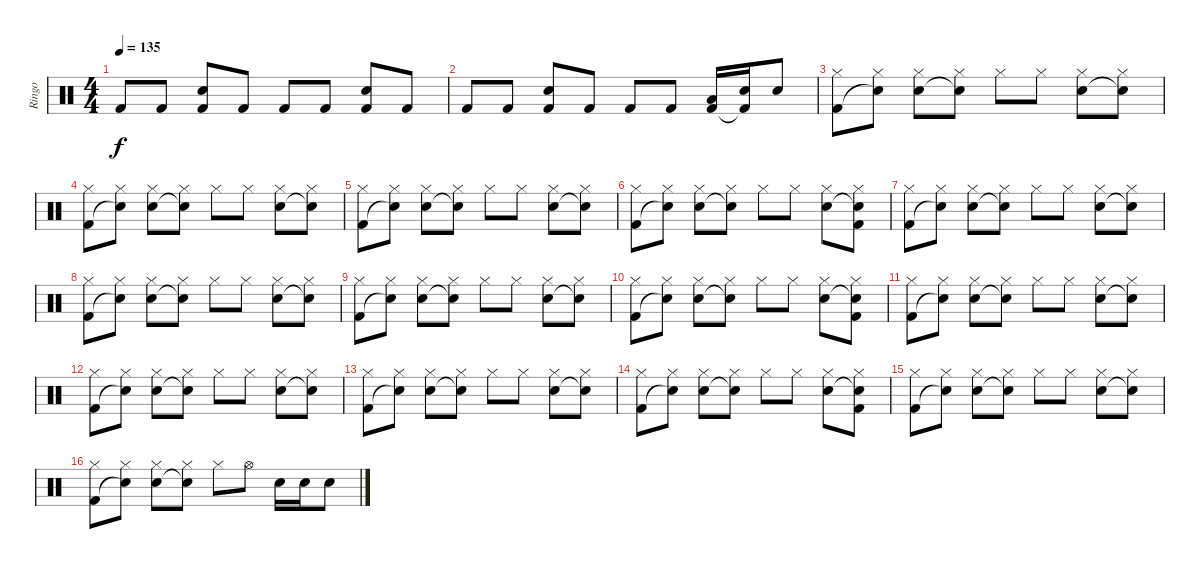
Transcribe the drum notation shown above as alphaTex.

\track ("Ringo" "Ringo") {instrument percussion}
\staff {score}
\articulation defaults
\ts (4 4)
\tempo 135
\clef neutral
\ks c "Kick (hit) 2".8{dy f} "Kick (hit) 2".8
("Snare (hit) 2" "Kick (hit) 2").8 "Kick (hit) 2".8 "Kick (hit) 2".8 "Kick (hit) 2".8 ("Snare (hit) 2" "Kick (hit) 2").8 "Kick (hit) 2".8 |
"Kick (hit) 2".8 "Kick (hit) 2".8 ("Snare (hit) 2" "Kick (hit) 2").8 "Kick (hit) 2".8 "Kick (hit) 2".8 "Kick (hit) 2".8 ("Low Tom (hit)" "Kick (hit) 2").16 ("Snare (hit) 2" "Kick (hit) 2"{t}).16 "Snare (hit) 2".8 |
("Hi-Hat (closed)" "Kick (hit) 2").8 ("Hi-Hat (closed)" "Snare (hit)"{t}).8 ("Hi-Hat (closed)" "Snare (hit) 2").8 ("Hi-Hat (closed)" "Snare (hit)"{t}).8 "Hi-Hat (closed)".8 "Hi-Hat (closed)".8 ("Hi-Hat (closed)" "Snare (hit) 2").8 ("Hi-Hat (closed)" "Snare (hit)"{t}).8 |
("Hi-Hat (closed)" "Kick (hit) 2").8 ("Hi-Hat (closed)" "Snare (hit)"{t}).8 ("Hi-Hat (closed)" "Snare (hit) 2").8 ("Hi-Hat (closed)" "Snare (hit)"{t}).8 "Hi-Hat (closed)".8 "Hi-Hat (closed)".8 ("Hi-Hat (closed)" "Snare (hit) 2").8 ("Hi-Hat (closed)" "Snare (hit)"{t}).8 |
("Hi-Hat (closed)" "Kick (hit) 2").8 ("Hi-Hat (closed)" "Snare (hit)"{t}).8 ("Hi-Hat (closed)" "Snare (hit) 2").8 ("Hi-Hat (closed)" "Snare (hit)"{t}).8 "Hi-Hat (closed)".8 "Hi-Hat (closed)".8 ("Hi-Hat (closed)" "Snare (hit) 2").8 ("Hi-Hat (closed)" "Snare (hit)"{t}).8 |
("Hi-Hat (closed)" "Kick (hit) 2").8 ("Hi-Hat (closed)" "Snare (hit)"{t}).8 ("Hi-Hat (closed)" "Snare (hit) 2").8 ("Hi-Hat (closed)" "Snare (hit)"{t}).8 "Hi-Hat (closed)".8 "Hi-Hat (closed)".8 ("Hi-Hat (closed)" "Snare (hit) 2").8 ("Hi-Hat (closed)" "Snare (hit)"{t} "Kick (hit) 2").8 |
("Hi-Hat (closed)" "Kick (hit) 2").8 ("Hi-Hat (closed)" "Snare (hit)"{t}).8 ("Hi-Hat (closed)" "Snare (hit) 2").8 ("Hi-Hat (closed)" "Snare (hit)"{t}).8 "Hi-Hat (closed)".8 "Hi-Hat (closed)".8 ("Hi-Hat (closed)" "Snare (hit) 2").8 ("Hi-Hat (closed)" "Snare (hit)"{t}).8 |
("Hi-Hat (closed)" "Kick (hit) 2").8 ("Hi-Hat (closed)" "Snare (hit)"{t}).8 ("Hi-Hat (closed)" "Snare (hit) 2").8 ("Hi-Hat (closed)" "Snare (hit)"{t}).8 "Hi-Hat (closed)".8 "Hi-Hat (closed)".8 ("Hi-Hat (closed)" "Snare (hit) 2").8 ("Hi-Hat (closed)" "Snare (hit)"{t}).8 |
("Hi-Hat (closed)" "Kick (hit) 2").8 ("Hi-Hat (closed)" "Snare (hit)"{t}).8 ("Hi-Hat (closed)" "Snare (hit) 2").8 ("Hi-Hat (closed)" "Snare (hit)"{t}).8 "Hi-Hat (closed)".8 "Hi-Hat (closed)".8 ("Hi-Hat (closed)" "Snare (hit) 2").8 ("Hi-Hat (closed)" "Snare (hit)"{t}).8 |
("Hi-Hat (closed)" "Kick (hit) 2").8 ("Hi-Hat (closed)" "Snare (hit)"{t}).8 ("Hi-Hat (closed)" "Snare (hit) 2").8 ("Hi-Hat (closed)" "Snare (hit)"{t}).8 "Hi-Hat (closed)".8 "Hi-Hat (closed)".8 ("Hi-Hat (closed)" "Snare (hit) 2").8 ("Hi-Hat (closed)" "Snare (hit)"{t} "Kick (hit) 2").8 |
("Hi-Hat (closed)" "Kick (hit) 2").8 ("Hi-Hat (closed)" "Snare (hit)"{t}).8 ("Hi-Hat (closed)" "Snare (hit) 2").8 ("Hi-Hat (closed)" "Snare (hit)"{t}).8 "Hi-Hat (closed)".8 "Hi-Hat (closed)".8 ("Hi-Hat (closed)" "Snare (hit) 2").8 ("Hi-Hat (closed)" "Snare (hit)"{t}).8 |
("Hi-Hat (closed)" "Kick (hit) 2").8 ("Hi-Hat (closed)" "Snare (hit)"{t}).8 ("Hi-Hat (closed)" "Snare (hit) 2").8 ("Hi-Hat (closed)" "Snare (hit)"{t}).8 "Hi-Hat (closed)".8 "Hi-Hat (closed)".8 ("Hi-Hat (closed)" "Snare (hit) 2").8 ("Hi-Hat (closed)" "Snare (hit)"{t}).8 |
("Hi-Hat (closed)" "Kick (hit) 2").8 ("Hi-Hat (closed)" "Snare (hit)"{t}).8 ("Hi-Hat (closed)" "Snare (hit) 2").8 ("Hi-Hat (closed)" "Snare (hit)"{t}).8 "Hi-Hat (closed)".8 "Hi-Hat (closed)".8 ("Hi-Hat (closed)" "Snare (hit) 2").8 ("Hi-Hat (closed)" "Snare (hit)"{t}).8 |
("Hi-Hat (closed)" "Kick (hit) 2").8 ("Hi-Hat (closed)" "Snare (hit)"{t}).8 ("Hi-Hat (closed)" "Snare (hit) 2").8 ("Hi-Hat (closed)" "Snare (hit)"{t}).8 "Hi-Hat (closed)".8 "Hi-Hat (closed)".8 ("Hi-Hat (closed)" "Snare (hit) 2").8 ("Hi-Hat (closed)" "Snare (hit)"{t} "Kick (hit) 2").8 |
("Hi-Hat (closed)" "Kick (hit) 2").8 ("Hi-Hat (closed)" "Snare (hit)"{t}).8 ("Hi-Hat (closed)" "Snare (hit) 2").8 ("Hi-Hat (closed)" "Snare (hit)"{t}).8 "Hi-Hat (closed)".8 "Hi-Hat (closed)".8 ("Hi-Hat (closed)" "Snare (hit) 2").8 ("Hi-Hat (closed)" "Snare (hit)"{t}).8 |
("Hi-Hat (closed)" "Kick (hit) 2").8 ("Hi-Hat (closed)" "Snare (hit)"{t}).8 ("Hi-Hat (closed)" "Snare (hit) 2").8 ("Hi-Hat (closed)" "Snare (hit)"{t}).8 "Hi-Hat (closed)".8 "Hi-Hat (open)".8 "Snare (hit) 2".16 "Snare (hit) 2".16 "Snare (hit) 2".8
